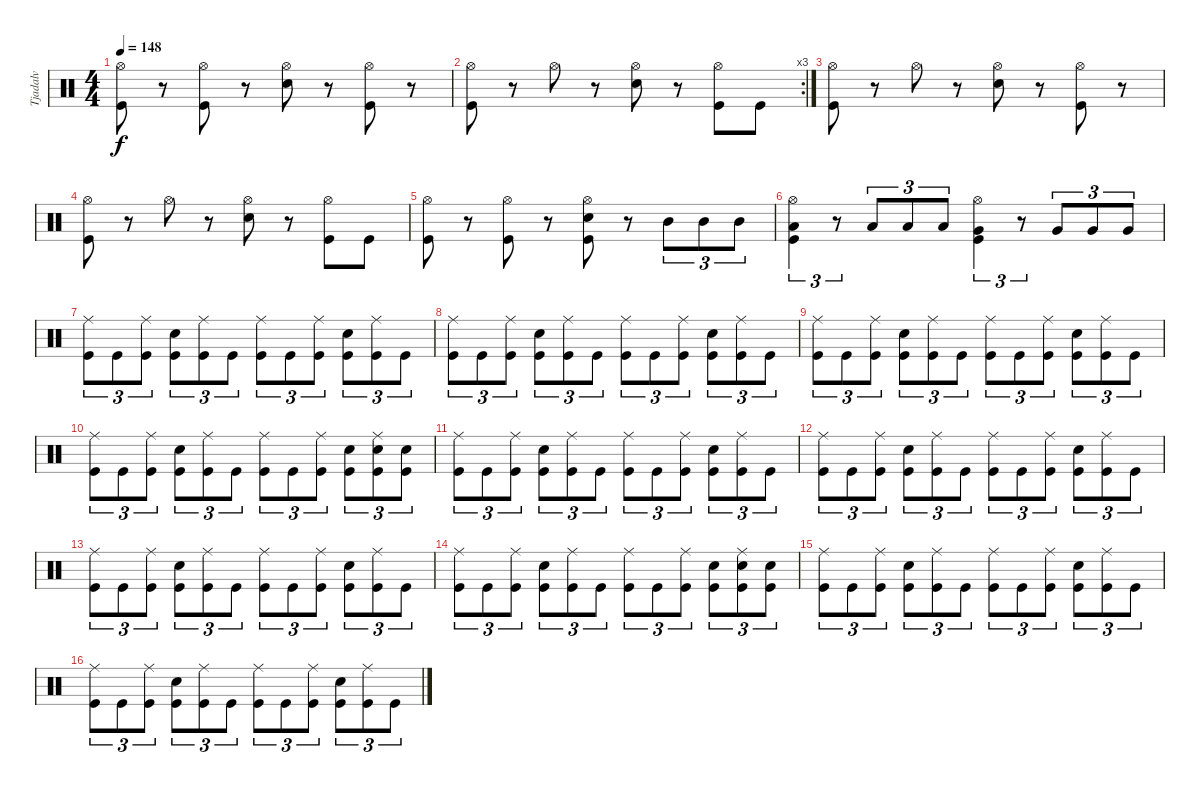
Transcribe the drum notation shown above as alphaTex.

\track ("Tjadalv    ( Drum )" "Tjadalv   ") {instrument percussion}
\staff {score}
\articulation defaults
\ts (4 4)
\tempo 148
\clef neutral
\ks c
("Hi-Hat (open)" "Kick (hit)").8{dy f} r.8 ("Hi-Hat (open)" "Kick (hit)").8 r.8 ("Hi-Hat (open)" "Electric Snare (hit)").8 r.8 ("Hi-Hat (open)" "Kick (hit)").8 r.8 |
\rc 3
("Hi-Hat (open)" "Kick (hit)").8 r.8 "Hi-Hat (open)".8 r.8 ("Hi-Hat (open)" "Electric Snare (hit)").8 r.8 ("Hi-Hat (open)" "Kick (hit)").8 "Kick (hit)".8 |
("Hi-Hat (open)" "Kick (hit)").8 r.8 "Hi-Hat (open)".8 r.8 ("Hi-Hat (open)" "Electric Snare (hit)").8 r.8 ("Hi-Hat (open)" "Kick (hit)").8 r.8 |
("Hi-Hat (open)" "Kick (hit)").8 r.8 "Hi-Hat (open)".8 r.8 ("Hi-Hat (open)" "Electric Snare (hit)").8 r.8 ("Hi-Hat (open)" "Kick (hit)").8 "Kick (hit)".8 |
("Hi-Hat (open)" "Kick (hit)").8 r.8 ("Hi-Hat (open)" "Kick (hit)").8 r.8 ("Hi-Hat (open)" "Electric Snare (hit)" "Kick (hit)").8 r.8 "Mid Tom (hit)".8{tu (3 2)} "Mid Tom (hit)".8{tu (3 2)} "Mid Tom (hit)".8{tu (3 2)} |
("Hi-Hat (open)" "Low Tom (hit)" "Kick (hit)").4{tu (3 2)} r.8{tu (3 2)} "Low Tom (hit)".8{tu (3 2)} "Low Tom (hit)".8{tu (3 2)} "Low Tom (hit)".8{tu (3 2)} ("Hi-Hat (open)" "Very Low Tom (hit)" "Kick (hit)").4{tu (3 2)} r.8{tu (3 2)} "Very Low Tom (hit)".8{tu (3 2)} "Very Low Tom (hit)".8{tu (3 2)} "Very Low Tom (hit)".8{tu (3 2)} |
("Ride (middle)" "Kick (hit)").8{tu (3 2)} "Kick (hit)".8{tu (3 2)} ("Ride (middle)" "Kick (hit)").8{tu (3 2)} ("Electric Snare (hit)" "Kick (hit)").8{tu (3 2)} ("Ride (middle)" "Kick (hit)").8{tu (3 2)} "Kick (hit)".8{tu (3 2)} ("Ride (middle)" "Kick (hit)").8{tu (3 2)} "Kick (hit)".8{tu (3 2)} ("Ride (middle)" "Kick (hit)").8{tu (3 2)} ("Electric Snare (hit)" "Kick (hit)").8{tu (3 2)} ("Ride (middle)" "Kick (hit)").8{tu (3 2)} "Kick (hit)".8{tu (3 2)} |
("Ride (middle)" "Kick (hit)").8{tu (3 2)} "Kick (hit)".8{tu (3 2)} ("Ride (middle)" "Kick (hit)").8{tu (3 2)} ("Electric Snare (hit)" "Kick (hit)").8{tu (3 2)} ("Ride (middle)" "Kick (hit)").8{tu (3 2)} "Kick (hit)".8{tu (3 2)} ("Ride (middle)" "Kick (hit)").8{tu (3 2)} "Kick (hit)".8{tu (3 2)} ("Ride (middle)" "Kick (hit)").8{tu (3 2)} ("Electric Snare (hit)" "Kick (hit)").8{tu (3 2)} ("Ride (middle)" "Kick (hit)").8{tu (3 2)} "Kick (hit)".8{tu (3 2)} |
("Ride (middle)" "Kick (hit)").8{tu (3 2)} "Kick (hit)".8{tu (3 2)} ("Ride (middle)" "Kick (hit)").8{tu (3 2)} ("Electric Snare (hit)" "Kick (hit)").8{tu (3 2)} ("Ride (middle)" "Kick (hit)").8{tu (3 2)} "Kick (hit)".8{tu (3 2)} ("Ride (middle)" "Kick (hit)").8{tu (3 2)} "Kick (hit)".8{tu (3 2)} ("Ride (middle)" "Kick (hit)").8{tu (3 2)} ("Electric Snare (hit)" "Kick (hit)").8{tu (3 2)} ("Ride (middle)" "Kick (hit)").8{tu (3 2)} "Kick (hit)".8{tu (3 2)} |
("Ride (middle)" "Kick (hit)").8{tu (3 2)} "Kick (hit)".8{tu (3 2)} ("Ride (middle)" "Kick (hit)").8{tu (3 2)} ("Electric Snare (hit)" "Kick (hit)").8{tu (3 2)} ("Ride (middle)" "Kick (hit)").8{tu (3 2)} "Kick (hit)".8{tu (3 2)} ("Ride (middle)" "Kick (hit)").8{tu (3 2)} "Kick (hit)".8{tu (3 2)} ("Ride (middle)" "Kick (hit)").8{tu (3 2)} ("Electric Snare (hit)" "Kick (hit)").8{tu (3 2)} ("Ride (middle)" "Electric Snare (hit)" "Kick (hit)").8{tu (3 2)} ("Electric Snare (hit)" "Kick (hit)").8{tu (3 2)} |
("Ride (middle)" "Kick (hit)").8{tu (3 2)} "Kick (hit)".8{tu (3 2)} ("Ride (middle)" "Kick (hit)").8{tu (3 2)} ("Electric Snare (hit)" "Kick (hit)").8{tu (3 2)} ("Ride (middle)" "Kick (hit)").8{tu (3 2)} "Kick (hit)".8{tu (3 2)} ("Ride (middle)" "Kick (hit)").8{tu (3 2)} "Kick (hit)".8{tu (3 2)} ("Ride (middle)" "Kick (hit)").8{tu (3 2)} ("Electric Snare (hit)" "Kick (hit)").8{tu (3 2)} ("Ride (middle)" "Kick (hit)").8{tu (3 2)} "Kick (hit)".8{tu (3 2)} |
("Ride (middle)" "Kick (hit)").8{tu (3 2)} "Kick (hit)".8{tu (3 2)} ("Ride (middle)" "Kick (hit)").8{tu (3 2)} ("Electric Snare (hit)" "Kick (hit)").8{tu (3 2)} ("Ride (middle)" "Kick (hit)").8{tu (3 2)} "Kick (hit)".8{tu (3 2)} ("Ride (middle)" "Kick (hit)").8{tu (3 2)} "Kick (hit)".8{tu (3 2)} ("Ride (middle)" "Kick (hit)").8{tu (3 2)} ("Electric Snare (hit)" "Kick (hit)").8{tu (3 2)} ("Ride (middle)" "Kick (hit)").8{tu (3 2)} "Kick (hit)".8{tu (3 2)} |
("Ride (middle)" "Kick (hit)").8{tu (3 2)} "Kick (hit)".8{tu (3 2)} ("Ride (middle)" "Kick (hit)").8{tu (3 2)} ("Electric Snare (hit)" "Kick (hit)").8{tu (3 2)} ("Ride (middle)" "Kick (hit)").8{tu (3 2)} "Kick (hit)".8{tu (3 2)} ("Ride (middle)" "Kick (hit)").8{tu (3 2)} "Kick (hit)".8{tu (3 2)} ("Ride (middle)" "Kick (hit)").8{tu (3 2)} ("Electric Snare (hit)" "Kick (hit)").8{tu (3 2)} ("Ride (middle)" "Kick (hit)").8{tu (3 2)} "Kick (hit)".8{tu (3 2)} |
("Ride (middle)" "Kick (hit)").8{tu (3 2)} "Kick (hit)".8{tu (3 2)} ("Ride (middle)" "Kick (hit)").8{tu (3 2)} ("Electric Snare (hit)" "Kick (hit)").8{tu (3 2)} ("Ride (middle)" "Kick (hit)").8{tu (3 2)} "Kick (hit)".8{tu (3 2)} ("Ride (middle)" "Kick (hit)").8{tu (3 2)} "Kick (hit)".8{tu (3 2)} ("Ride (middle)" "Kick (hit)").8{tu (3 2)} ("Electric Snare (hit)" "Kick (hit)").8{tu (3 2)} ("Ride (middle)" "Electric Snare (hit)" "Kick (hit)").8{tu (3 2)} ("Electric Snare (hit)" "Kick (hit)").8{tu (3 2)} |
("Ride (middle)" "Kick (hit)").8{tu (3 2)} "Kick (hit)".8{tu (3 2)} ("Ride (middle)" "Kick (hit)").8{tu (3 2)} ("Electric Snare (hit)" "Kick (hit)").8{tu (3 2)} ("Ride (middle)" "Kick (hit)").8{tu (3 2)} "Kick (hit)".8{tu (3 2)} ("Ride (middle)" "Kick (hit)").8{tu (3 2)} "Kick (hit)".8{tu (3 2)} ("Ride (middle)" "Kick (hit)").8{tu (3 2)} ("Electric Snare (hit)" "Kick (hit)").8{tu (3 2)} ("Ride (middle)" "Kick (hit)").8{tu (3 2)} "Kick (hit)".8{tu (3 2)} |
("Ride (middle)" "Kick (hit)").8{tu (3 2)} "Kick (hit)".8{tu (3 2)} ("Ride (middle)" "Kick (hit)").8{tu (3 2)} ("Electric Snare (hit)" "Kick (hit)").8{tu (3 2)} ("Ride (middle)" "Kick (hit)").8{tu (3 2)} "Kick (hit)".8{tu (3 2)} ("Ride (middle)" "Kick (hit)").8{tu (3 2)} "Kick (hit)".8{tu (3 2)} ("Ride (middle)" "Kick (hit)").8{tu (3 2)} ("Electric Snare (hit)" "Kick (hit)").8{tu (3 2)} ("Ride (middle)" "Kick (hit)").8{tu (3 2)} "Kick (hit)".8{tu (3 2)}
